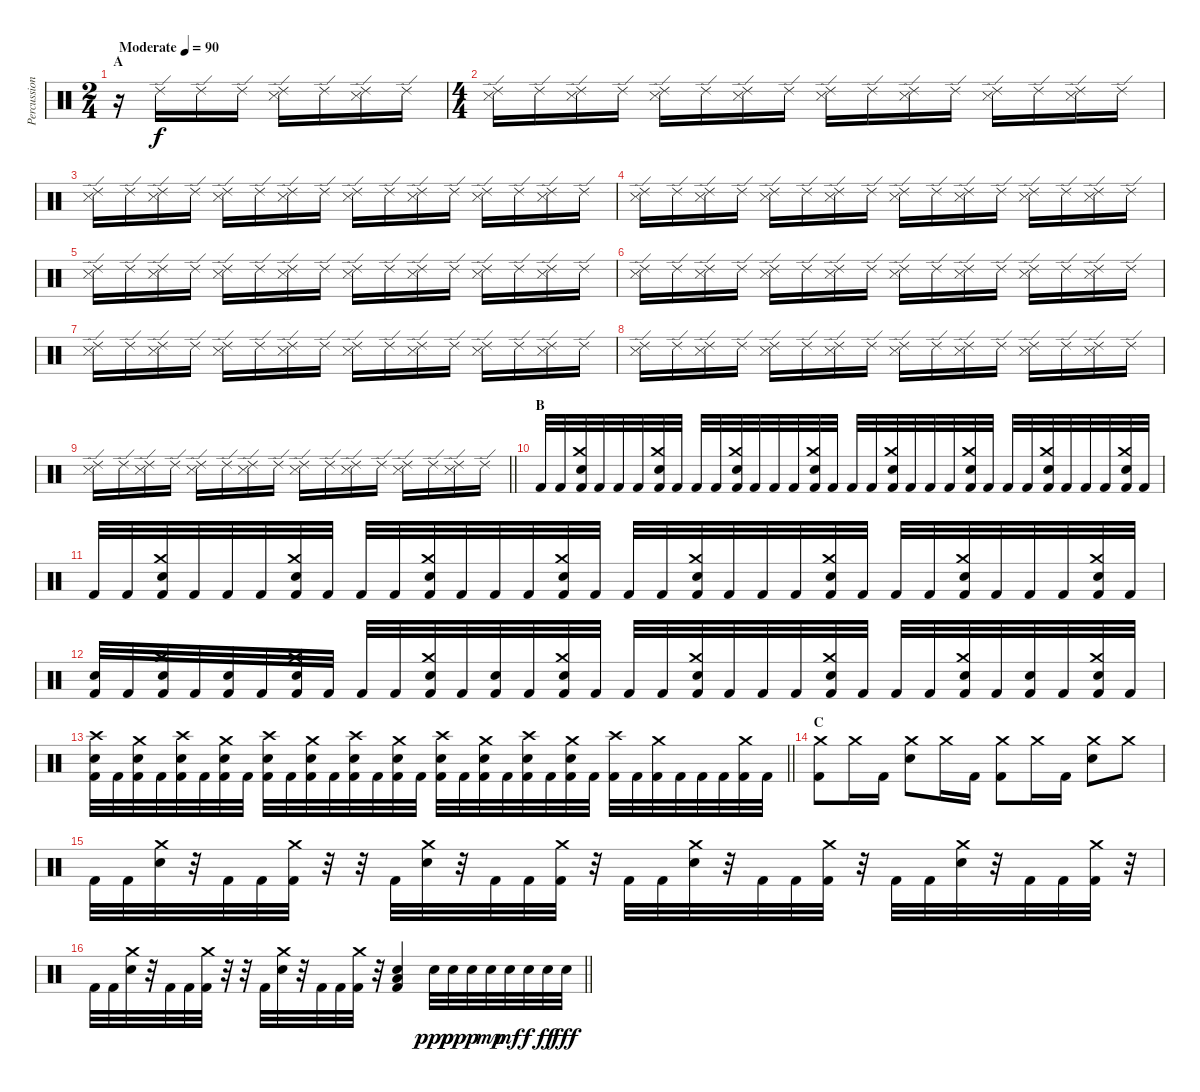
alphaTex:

\track ("Percussions" "Percussion") {instrument percussion}
\staff {score}
\articulation defaults
\ts (2 4)
\section ("" "A")
\tempo (90 "Moderate")
\clef neutral
\ks c
r.16{dy f} "Ride (edge) 2".16 "Ride (edge) 2".16 "Ride (edge) 2".16 ("Ride (edge) 2" "Metronome (hit)").16 "Ride (edge) 2".16 ("Ride (edge) 2" "Metronome (hit)").16 "Ride (edge) 2".16 |
\ts (4 4)
("Ride (edge) 2" "Metronome (hit)").16 "Ride (edge) 2".16 ("Ride (edge) 2" "Metronome (hit)").16 "Ride (edge) 2".16 ("Ride (edge) 2" "Metronome (hit)").16 "Ride (edge) 2".16 ("Ride (edge) 2" "Metronome (hit)").16 "Ride (edge) 2".16 ("Ride (edge) 2" "Metronome (hit)").16 "Ride (edge) 2".16 ("Ride (edge) 2" "Metronome (hit)").16 "Ride (edge) 2".16 ("Ride (edge) 2" "Metronome (hit)").16 "Ride (edge) 2".16 ("Ride (edge) 2" "Metronome (hit)").16 "Ride (edge) 2".16 |
("Ride (edge) 2" "Metronome (hit)").16 "Ride (edge) 2".16 ("Ride (edge) 2" "Metronome (hit)").16 "Ride (edge) 2".16 ("Ride (edge) 2" "Metronome (hit)").16 "Ride (edge) 2".16 ("Ride (edge) 2" "Metronome (hit)").16 "Ride (edge) 2".16 ("Ride (edge) 2" "Metronome (hit)").16 "Ride (edge) 2".16 ("Ride (edge) 2" "Metronome (hit)").16 "Ride (edge) 2".16 ("Ride (edge) 2" "Metronome (hit)").16 "Ride (edge) 2".16 ("Ride (edge) 2" "Metronome (hit)").16 "Ride (edge) 2".16 |
("Ride (edge) 2" "Metronome (hit)").16 "Ride (edge) 2".16 ("Ride (edge) 2" "Metronome (hit)").16 "Ride (edge) 2".16 ("Ride (edge) 2" "Metronome (hit)").16 "Ride (edge) 2".16 ("Ride (edge) 2" "Metronome (hit)").16 "Ride (edge) 2".16 ("Ride (edge) 2" "Metronome (hit)").16 "Ride (edge) 2".16 ("Ride (edge) 2" "Metronome (hit)").16 "Ride (edge) 2".16 ("Ride (edge) 2" "Metronome (hit)").16 "Ride (edge) 2".16 ("Ride (edge) 2" "Metronome (hit)").16 "Ride (edge) 2".16 |
("Ride (edge) 2" "Metronome (hit)").16 "Ride (edge) 2".16 ("Ride (edge) 2" "Metronome (hit)").16 "Ride (edge) 2".16 ("Ride (edge) 2" "Metronome (hit)").16 "Ride (edge) 2".16 ("Ride (edge) 2" "Metronome (hit)").16 "Ride (edge) 2".16 ("Ride (edge) 2" "Metronome (hit)").16 "Ride (edge) 2".16 ("Ride (edge) 2" "Metronome (hit)").16 "Ride (edge) 2".16 ("Ride (edge) 2" "Metronome (hit)").16 "Ride (edge) 2".16 ("Ride (edge) 2" "Metronome (hit)").16 "Ride (edge) 2".16 |
("Ride (edge) 2" "Metronome (hit)").16 "Ride (edge) 2".16 ("Ride (edge) 2" "Metronome (hit)").16 "Ride (edge) 2".16 ("Ride (edge) 2" "Metronome (hit)").16 "Ride (edge) 2".16 ("Ride (edge) 2" "Metronome (hit)").16 "Ride (edge) 2".16 ("Ride (edge) 2" "Metronome (hit)").16 "Ride (edge) 2".16 ("Ride (edge) 2" "Metronome (hit)").16 "Ride (edge) 2".16 ("Ride (edge) 2" "Metronome (hit)").16 "Ride (edge) 2".16 ("Ride (edge) 2" "Metronome (hit)").16 "Ride (edge) 2".16 |
("Ride (edge) 2" "Metronome (hit)").16 "Ride (edge) 2".16 ("Ride (edge) 2" "Metronome (hit)").16 "Ride (edge) 2".16 ("Ride (edge) 2" "Metronome (hit)").16 "Ride (edge) 2".16 ("Ride (edge) 2" "Metronome (hit)").16 "Ride (edge) 2".16 ("Ride (edge) 2" "Metronome (hit)").16 "Ride (edge) 2".16 ("Ride (edge) 2" "Metronome (hit)").16 "Ride (edge) 2".16 ("Ride (edge) 2" "Metronome (hit)").16 "Ride (edge) 2".16 ("Ride (edge) 2" "Metronome (hit)").16 "Ride (edge) 2".16 |
("Ride (edge) 2" "Metronome (hit)").16 "Ride (edge) 2".16 ("Ride (edge) 2" "Metronome (hit)").16 "Ride (edge) 2".16 ("Ride (edge) 2" "Metronome (hit)").16 "Ride (edge) 2".16 ("Ride (edge) 2" "Metronome (hit)").16 "Ride (edge) 2".16 ("Ride (edge) 2" "Metronome (hit)").16 "Ride (edge) 2".16 ("Ride (edge) 2" "Metronome (hit)").16 "Ride (edge) 2".16 ("Ride (edge) 2" "Metronome (hit)").16 "Ride (edge) 2".16 ("Ride (edge) 2" "Metronome (hit)").16 "Ride (edge) 2".16 |
\barLineRight lightlight
("Ride (edge) 2" "Metronome (hit)").16 "Ride (edge) 2".16 ("Ride (edge) 2" "Metronome (hit)").16 "Ride (edge) 2".16 ("Ride (edge) 2" "Metronome (hit)").16 "Ride (edge) 2".16 ("Ride (edge) 2" "Metronome (hit)").16 "Ride (edge) 2".16 ("Ride (edge) 2" "Metronome (hit)").16 "Ride (edge) 2".16 ("Ride (edge) 2" "Metronome (hit)").16 "Ride (edge) 2".16 ("Ride (edge) 2" "Metronome (hit)").16 "Ride (edge) 2".16 ("Ride (edge) 2" "Metronome (hit)").16 "Ride (edge) 2".16 |
\section ("" "B")
"Kick (hit) 2".32 "Kick (hit) 2".32 ("Crash medium (hit)" "Snare (hit) 2" "Kick (hit) 2").32 "Kick (hit) 2".32 "Kick (hit) 2".32 "Kick (hit) 2".32 ("Crash medium (hit)" "Snare (hit) 2" "Kick (hit) 2").32 "Kick (hit) 2".32 "Kick (hit) 2".32 "Kick (hit) 2".32 ("Crash medium (hit)" "Snare (hit) 2" "Kick (hit) 2").32 "Kick (hit) 2".32 "Kick (hit) 2".32 "Kick (hit) 2".32 ("Crash medium (hit)" "Snare (hit) 2" "Kick (hit) 2").32 "Kick (hit) 2".32 "Kick (hit) 2".32 "Kick (hit) 2".32 ("Crash medium (hit)" "Snare (hit) 2" "Kick (hit) 2").32 "Kick (hit) 2".32 "Kick (hit) 2".32 "Kick (hit) 2".32 ("Crash medium (hit)" "Snare (hit) 2" "Kick (hit) 2").32 "Kick (hit) 2".32 "Kick (hit) 2".32 "Kick (hit) 2".32 ("Crash medium (hit)" "Snare (hit) 2" "Kick (hit) 2").32 "Kick (hit) 2".32 "Kick (hit) 2".32 "Kick (hit) 2".32 ("Crash medium (hit)" "Snare (hit) 2" "Kick (hit) 2").32 "Kick (hit) 2".32 |
"Kick (hit) 2".32 "Kick (hit) 2".32 ("Crash medium (hit)" "Snare (hit) 2" "Kick (hit) 2").32 "Kick (hit) 2".32 "Kick (hit) 2".32 "Kick (hit) 2".32 ("Crash medium (hit)" "Snare (hit) 2" "Kick (hit) 2").32 "Kick (hit) 2".32 "Kick (hit) 2".32 "Kick (hit) 2".32 ("Crash medium (hit)" "Snare (hit) 2" "Kick (hit) 2").32 "Kick (hit) 2".32 "Kick (hit) 2".32 "Kick (hit) 2".32 ("Crash medium (hit)" "Snare (hit) 2" "Kick (hit) 2").32 "Kick (hit) 2".32 "Kick (hit) 2".32 "Kick (hit) 2".32 ("Crash medium (hit)" "Snare (hit) 2" "Kick (hit) 2").32 "Kick (hit) 2".32 "Kick (hit) 2".32 "Kick (hit) 2".32 ("Crash medium (hit)" "Snare (hit) 2" "Kick (hit) 2").32 "Kick (hit) 2".32 "Kick (hit) 2".32 "Kick (hit) 2".32 ("Crash medium (hit)" "Snare (hit) 2" "Kick (hit) 2").32 "Kick (hit) 2".32 "Kick (hit) 2".32 "Kick (hit) 2".32 ("Crash medium (hit)" "Snare (hit) 2" "Kick (hit) 2").32 "Kick (hit) 2".32 |
("Snare (hit) 2" "Kick (hit) 2").32 "Kick (hit) 2".32 ("Crash medium (hit)" "Snare (hit) 2" "Kick (hit) 2").32 "Kick (hit) 2".32 ("Snare (hit) 2" "Kick (hit) 2").32 "Kick (hit) 2".32 ("Crash medium (hit)" "Snare (hit) 2" "Kick (hit) 2").32 "Kick (hit) 2".32 "Kick (hit) 2".32 "Kick (hit) 2".32 ("Crash medium (hit)" "Snare (hit) 2" "Kick (hit) 2").32 "Kick (hit) 2".32 ("Snare (hit) 2" "Kick (hit) 2").32 "Kick (hit) 2".32 ("Crash medium (hit)" "Snare (hit) 2" "Kick (hit) 2").32 "Kick (hit) 2".32 "Kick (hit) 2".32 "Kick (hit) 2".32 ("Crash medium (hit)" "Snare (hit) 2" "Kick (hit) 2").32 "Kick (hit) 2".32 "Kick (hit) 2".32 "Kick (hit) 2".32 ("Crash medium (hit)" "Snare (hit) 2" "Kick (hit) 2").32 "Kick (hit) 2".32 "Kick (hit) 2".32 "Kick (hit) 2".32 ("Crash medium (hit)" "Snare (hit) 2" "Kick (hit) 2").32 "Kick (hit) 2".32 ("Snare (hit) 2" "Kick (hit) 2").32 "Kick (hit) 2".32 ("Crash medium (hit)" "Snare (hit) 2" "Kick (hit) 2").32 "Kick (hit) 2".32 |
\barLineRight lightlight
("Crash high (hit)" "Snare (hit) 2" "Kick (hit) 2").32 "Kick (hit) 2".32 ("Crash medium (hit)" "Snare (hit) 2" "Kick (hit) 2").32 "Kick (hit) 2".32 ("Crash high (hit)" "Snare (hit) 2" "Kick (hit) 2").32 "Kick (hit) 2".32 ("Crash medium (hit)" "Snare (hit) 2" "Kick (hit) 2").32 "Kick (hit) 2".32 ("Crash high (hit)" "Snare (hit) 2" "Kick (hit) 2").32 "Kick (hit) 2".32 ("Crash medium (hit)" "Snare (hit) 2" "Kick (hit) 2").32 "Kick (hit) 2".32 ("Crash high (hit)" "Snare (hit) 2" "Kick (hit) 2").32 "Kick (hit) 2".32 ("Crash medium (hit)" "Snare (hit) 2" "Kick (hit) 2").32 "Kick (hit) 2".32 ("Crash high (hit)" "Snare (hit) 2" "Kick (hit) 2").32 "Kick (hit) 2".32 ("Crash medium (hit)" "Snare (hit) 2" "Kick (hit) 2").32 "Kick (hit) 2".32 ("Crash high (hit)" "Snare (hit) 2" "Kick (hit) 2").32 "Kick (hit) 2".32 ("Crash medium (hit)" "Snare (hit) 2" "Kick (hit) 2").32 "Kick (hit) 2".32 ("Crash high (hit)" "Kick (hit) 2").32 "Kick (hit) 2".32 ("Crash medium (hit)" "Kick (hit) 2").32 "Kick (hit) 2".32 "Kick (hit) 2".32 "Kick (hit) 2".32 ("Crash medium (hit)" "Kick (hit) 2").32 "Kick (hit) 2".32 |
\section ("" "C")
("Crash medium (hit)" "Kick (hit) 2").8 "Crash medium (hit)".16 "Kick (hit) 2".16 ("Crash medium (hit)" "Snare (hit) 2").8 "Crash medium (hit)".16 "Kick (hit) 2".16 ("Crash medium (hit)" "Kick (hit) 2").8 "Crash medium (hit)".16 "Kick (hit) 2".16 ("Crash medium (hit)" "Snare (hit) 2").8 "Crash medium (hit)".8 |
"Kick (hit) 2".32 "Kick (hit) 2".32 ("Crash medium (hit)" "Snare (hit) 2").32 r.32 "Kick (hit) 2".32 "Kick (hit) 2".32 ("Crash medium (hit)" "Kick (hit) 2").32 r.32 r.32 "Kick (hit) 2".32 ("Crash medium (hit)" "Snare (hit) 2").32 r.32 "Kick (hit) 2".32 "Kick (hit) 2".32 ("Crash medium (hit)" "Kick (hit) 2").32 r.32 "Kick (hit) 2".32 "Kick (hit) 2".32 ("Crash medium (hit)" "Snare (hit) 2").32 r.32 "Kick (hit) 2".32 "Kick (hit) 2".32 ("Crash medium (hit)" "Kick (hit) 2").32 r.32 "Kick (hit) 2".32 "Kick (hit) 2".32 ("Crash medium (hit)" "Snare (hit) 2").32 r.32 "Kick (hit) 2".32 "Kick (hit) 2".32 ("Crash medium (hit)" "Kick (hit) 2").32 r.32 |
\barLineRight lightlight "Kick (hit) 2".32 "Kick (hit) 2".32
("Crash medium (hit)" "Snare (hit) 2").32 r.32 "Kick (hit) 2".32 "Kick (hit) 2".32 ("Crash medium (hit)" "Kick (hit) 2").32 r.32 r.32 "Kick (hit) 2".32 ("Crash medium (hit)" "Snare (hit) 2").32 r.32 "Kick (hit) 2".32 "Kick (hit) 2".32 ("Crash medium (hit)" "Kick (hit) 2").32 r.32 ("Snare (hit) 2" "Low Tom (hit)" "Kick (hit) 2").4 "Snare (hit) 2".32{dy ppp} "Snare (hit) 2".32{dy pp} "Snare (hit) 2".32{dy p} "Snare (hit) 2".32{dy mp} "Snare (hit) 2".32{dy mf} "Snare (hit) 2".32{dy f} "Snare (hit) 2".32{dy ff} "Snare (hit) 2".32{dy fff}
